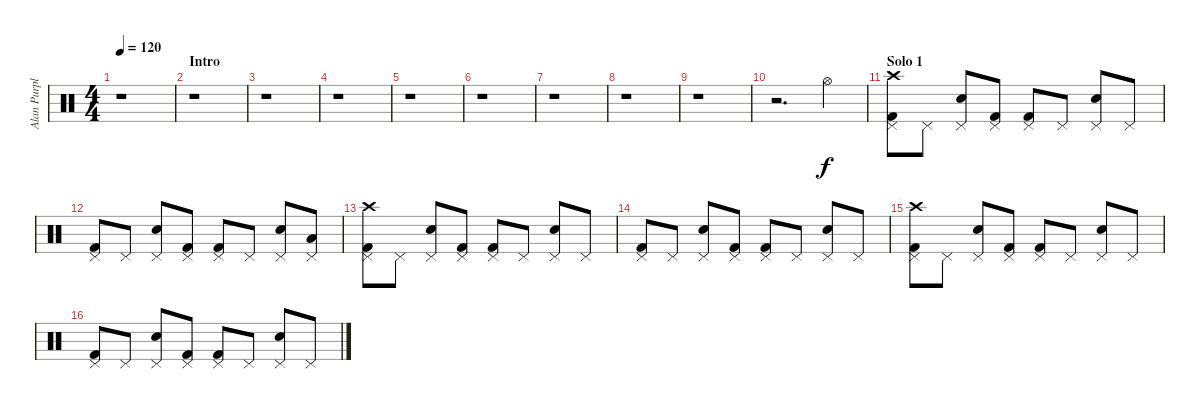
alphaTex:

\track ("Alan Purple" "Alan Purpl") {instrument percussion}
\staff {score}
\articulation defaults
\ts (4 4)
\tempo 120
\clef neutral
\ks c
r.1{dy f} |
\section ("" "Intro")
r.1 |
r.1 |
r.1 |
r.1 |
r.1 |
r.1 |
r.1 |
r.1 |
r.2{d} "Hi-Hat (open)".4 |
\section ("" "Solo 1")
("Crash high (hit)" "Pedal Hi-Hat (hit)" "Kick (hit) 2").8 "Pedal Hi-Hat (hit)".8 ("Pedal Hi-Hat (hit)" "Snare (hit) 2").8 ("Pedal Hi-Hat (hit)" "Kick (hit) 2").8 ("Pedal Hi-Hat (hit)" "Kick (hit) 2").8 "Pedal Hi-Hat (hit)".8 ("Pedal Hi-Hat (hit)" "Snare (hit) 2").8 "Pedal Hi-Hat (hit)".8 |
("Pedal Hi-Hat (hit)" "Kick (hit) 2").8 "Pedal Hi-Hat (hit)".8 ("Pedal Hi-Hat (hit)" "Snare (hit) 2").8 ("Pedal Hi-Hat (hit)" "Kick (hit) 2").8 ("Pedal Hi-Hat (hit)" "Kick (hit) 2").8 "Pedal Hi-Hat (hit)".8 ("Pedal Hi-Hat (hit)" "Snare (hit) 2").8 ("Pedal Hi-Hat (hit)" "Low Tom (hit)").8 |
("Crash high (hit)" "Pedal Hi-Hat (hit)" "Kick (hit) 2").8 "Pedal Hi-Hat (hit)".8 ("Pedal Hi-Hat (hit)" "Snare (hit) 2").8 ("Pedal Hi-Hat (hit)" "Kick (hit) 2").8 ("Pedal Hi-Hat (hit)" "Kick (hit) 2").8 "Pedal Hi-Hat (hit)".8 ("Pedal Hi-Hat (hit)" "Snare (hit) 2").8 "Pedal Hi-Hat (hit)".8 |
("Pedal Hi-Hat (hit)" "Kick (hit) 2").8 "Pedal Hi-Hat (hit)".8 ("Pedal Hi-Hat (hit)" "Snare (hit) 2").8 ("Pedal Hi-Hat (hit)" "Kick (hit) 2").8 ("Pedal Hi-Hat (hit)" "Kick (hit) 2").8 "Pedal Hi-Hat (hit)".8 ("Pedal Hi-Hat (hit)" "Snare (hit) 2").8 "Pedal Hi-Hat (hit)".8 |
("Crash high (hit)" "Pedal Hi-Hat (hit)" "Kick (hit) 2").8 "Pedal Hi-Hat (hit)".8 ("Pedal Hi-Hat (hit)" "Snare (hit) 2").8 ("Pedal Hi-Hat (hit)" "Kick (hit) 2").8 ("Pedal Hi-Hat (hit)" "Kick (hit) 2").8 "Pedal Hi-Hat (hit)".8 ("Pedal Hi-Hat (hit)" "Snare (hit) 2").8 "Pedal Hi-Hat (hit)".8 |
("Pedal Hi-Hat (hit)" "Kick (hit) 2").8 "Pedal Hi-Hat (hit)".8 ("Pedal Hi-Hat (hit)" "Snare (hit) 2").8 ("Pedal Hi-Hat (hit)" "Kick (hit) 2").8 ("Pedal Hi-Hat (hit)" "Kick (hit) 2").8 "Pedal Hi-Hat (hit)".8 ("Pedal Hi-Hat (hit)" "Snare (hit) 2").8 "Pedal Hi-Hat (hit)".8
